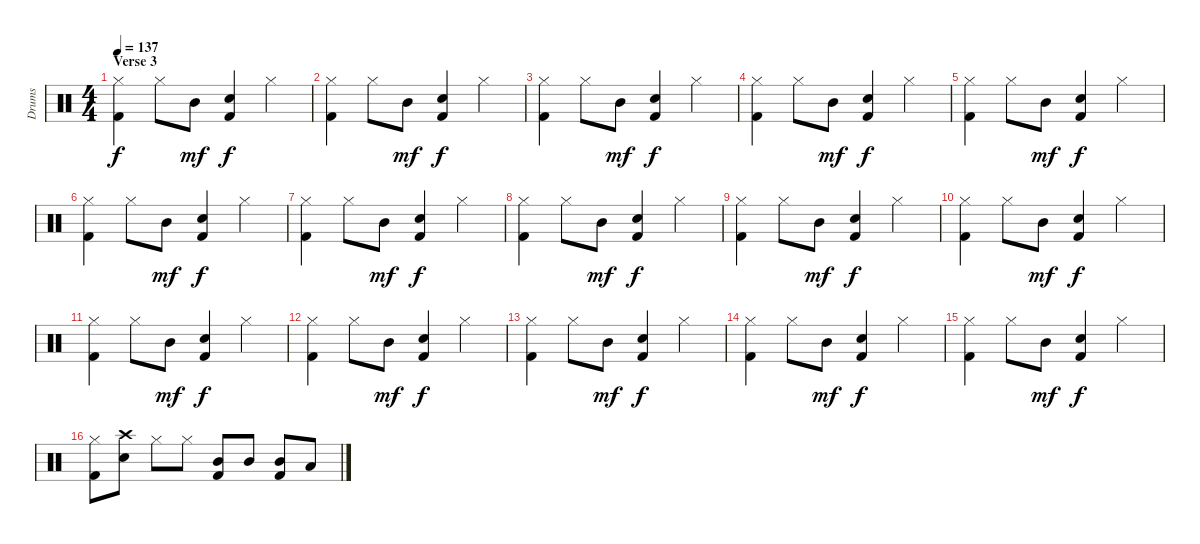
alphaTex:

\track ("Drums" "Drums") {instrument percussion}
\staff {score}
\articulation defaults
\ts (4 4)
\section ("" "Verse 3")
\tempo 137
\clef neutral
\ks c
("Hi-Hat (closed)" "Kick (hit) 2").4{dy f} "Hi-Hat (closed)".8 "Mid Tom (hit)".8{dy mf} ("Electric Snare (hit)" "Kick (hit) 2").4{dy f} "Hi-Hat (closed)".4 |
("Hi-Hat (closed)" "Kick (hit) 2").4 "Hi-Hat (closed)".8 "Mid Tom (hit)".8{dy mf} ("Electric Snare (hit)" "Kick (hit) 2").4{dy f} "Hi-Hat (closed)".4 |
("Hi-Hat (closed)" "Kick (hit) 2").4 "Hi-Hat (closed)".8 "Mid Tom (hit)".8{dy mf} ("Electric Snare (hit)" "Kick (hit) 2").4{dy f} "Hi-Hat (closed)".4 |
("Hi-Hat (closed)" "Kick (hit) 2").4 "Hi-Hat (closed)".8 "Mid Tom (hit)".8{dy mf} ("Electric Snare (hit)" "Kick (hit) 2").4{dy f} "Hi-Hat (closed)".4 |
("Hi-Hat (closed)" "Kick (hit) 2").4 "Hi-Hat (closed)".8 "Mid Tom (hit)".8{dy mf} ("Electric Snare (hit)" "Kick (hit) 2").4{dy f} "Hi-Hat (closed)".4 |
("Hi-Hat (closed)" "Kick (hit) 2").4 "Hi-Hat (closed)".8 "Mid Tom (hit)".8{dy mf} ("Electric Snare (hit)" "Kick (hit) 2").4{dy f} "Hi-Hat (closed)".4 |
("Hi-Hat (closed)" "Kick (hit) 2").4 "Hi-Hat (closed)".8 "Mid Tom (hit)".8{dy mf} ("Electric Snare (hit)" "Kick (hit) 2").4{dy f} "Hi-Hat (closed)".4 |
("Hi-Hat (closed)" "Kick (hit) 2").4 "Hi-Hat (closed)".8 "Mid Tom (hit)".8{dy mf} ("Electric Snare (hit)" "Kick (hit) 2").4{dy f} "Hi-Hat (closed)".4 |
("Hi-Hat (closed)" "Kick (hit) 2").4 "Hi-Hat (closed)".8 "Mid Tom (hit)".8{dy mf} ("Electric Snare (hit)" "Kick (hit) 2").4{dy f} "Hi-Hat (closed)".4 |
("Hi-Hat (closed)" "Kick (hit) 2").4 "Hi-Hat (closed)".8 "Mid Tom (hit)".8{dy mf} ("Electric Snare (hit)" "Kick (hit) 2").4{dy f} "Hi-Hat (closed)".4 |
("Hi-Hat (closed)" "Kick (hit) 2").4 "Hi-Hat (closed)".8 "Mid Tom (hit)".8{dy mf} ("Electric Snare (hit)" "Kick (hit) 2").4{dy f} "Hi-Hat (closed)".4 |
("Hi-Hat (closed)" "Kick (hit) 2").4 "Hi-Hat (closed)".8 "Mid Tom (hit)".8{dy mf} ("Electric Snare (hit)" "Kick (hit) 2").4{dy f} "Hi-Hat (closed)".4 |
("Hi-Hat (closed)" "Kick (hit) 2").4 "Hi-Hat (closed)".8 "Mid Tom (hit)".8{dy mf} ("Electric Snare (hit)" "Kick (hit) 2").4{dy f} "Hi-Hat (closed)".4 |
("Hi-Hat (closed)" "Kick (hit) 2").4 "Hi-Hat (closed)".8 "Mid Tom (hit)".8{dy mf} ("Electric Snare (hit)" "Kick (hit) 2").4{dy f} "Hi-Hat (closed)".4 |
("Hi-Hat (closed)" "Kick (hit) 2").4 "Hi-Hat (closed)".8 "Mid Tom (hit)".8{dy mf} ("Electric Snare (hit)" "Kick (hit) 2").4{dy f} "Hi-Hat (closed)".4 |
("Hi-Hat (closed)" "Kick (hit) 2").8 ("Crash high (hit)" "Electric Snare (hit)").8 "Hi-Hat (closed)".8 "Hi-Hat (closed)".8 ("Mid Tom (hit)" "Kick (hit) 2").8 "Mid Tom (hit)".8 ("Mid Tom (hit)" "Kick (hit) 2").8 "Low Tom (hit)".8
